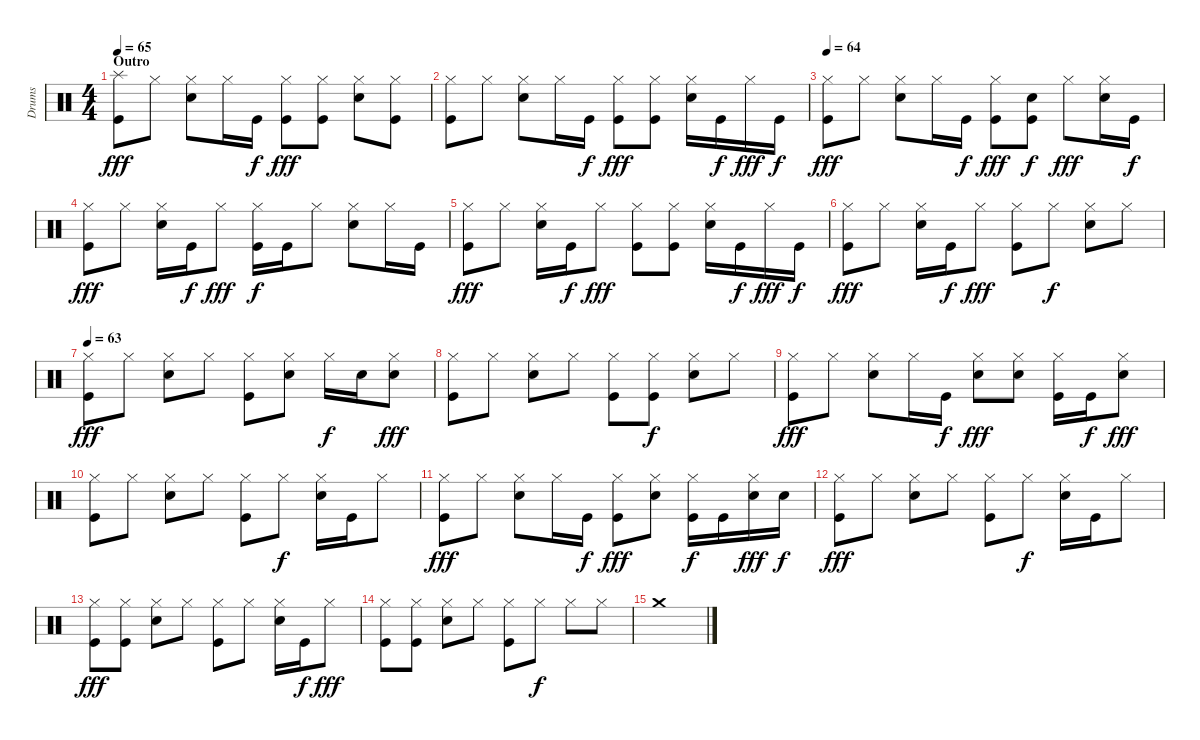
\track ("Drums" "Drums") {instrument percussion}
\staff {score}
\articulation defaults
\ts (4 4)
\section ("" "Outro")
\tempo 65
\clef neutral
\ks c
("Splash (hit)" "Kick (hit)").8{dy fff} "Hi-Hat (closed)".8 ("Hi-Hat (closed)" "Electric Snare (hit)").8 "Hi-Hat (closed)".16 "Kick (hit)".16{dy f} ("Hi-Hat (closed)" "Kick (hit)").8{dy fff} ("Hi-Hat (closed)" "Kick (hit)").8 ("Hi-Hat (closed)" "Electric Snare (hit)").8 ("Hi-Hat (closed)" "Kick (hit)").8 |
("Hi-Hat (closed)" "Kick (hit)").8 "Hi-Hat (closed)".8 ("Hi-Hat (closed)" "Electric Snare (hit)").8 "Hi-Hat (closed)".16 "Kick (hit)".16{dy f} ("Hi-Hat (closed)" "Kick (hit)").8{dy fff} ("Hi-Hat (closed)" "Kick (hit)").8 ("Hi-Hat (closed)" "Electric Snare (hit)").16 "Kick (hit)".16{dy f} "Hi-Hat (closed)".16{dy fff} "Kick (hit)".16{dy f} |
\tempo 64
("Hi-Hat (closed)" "Kick (hit)").8{dy fff} "Hi-Hat (closed)".8 ("Hi-Hat (closed)" "Electric Snare (hit)").8 "Hi-Hat (closed)".16 "Kick (hit)".16{dy f} ("Hi-Hat (closed)" "Kick (hit)").8{dy fff} ("Electric Snare (hit)" "Kick (hit)").8{dy f} "Hi-Hat (closed)".8{dy fff} ("Hi-Hat (closed)" "Electric Snare (hit)").16 "Kick (hit)".16{dy f} |
("Hi-Hat (closed)" "Kick (hit)").8{dy fff} "Hi-Hat (closed)".8 ("Hi-Hat (closed)" "Electric Snare (hit)").16 "Kick (hit)".16{dy f} "Hi-Hat (closed)".8{dy fff} ("Hi-Hat (closed)" "Kick (hit)").16{dy f} "Kick (hit)".16 "Hi-Hat (closed)".8 ("Hi-Hat (closed)" "Electric Snare (hit)").8 "Hi-Hat (closed)".16 "Kick (hit)".16 |
("Hi-Hat (closed)" "Kick (hit)").8{dy fff} "Hi-Hat (closed)".8 ("Hi-Hat (closed)" "Electric Snare (hit)").16 "Kick (hit)".16{dy f} "Hi-Hat (closed)".8{dy fff} ("Hi-Hat (closed)" "Kick (hit)").8 ("Hi-Hat (closed)" "Kick (hit)").8 ("Hi-Hat (closed)" "Electric Snare (hit)").16 "Kick (hit)".16{dy f} "Hi-Hat (closed)".16{dy fff} "Kick (hit)".16{dy f} |
("Hi-Hat (closed)" "Kick (hit)").8{dy fff} "Hi-Hat (closed)".8 ("Hi-Hat (closed)" "Electric Snare (hit)").16 "Kick (hit)".16{dy f} "Hi-Hat (closed)".8{dy fff} ("Hi-Hat (closed)" "Kick (hit)").8 "Hi-Hat (closed)".8{dy f} ("Hi-Hat (closed)" "Electric Snare (hit)").8 "Hi-Hat (closed)".8 |
\tempo 63
("Hi-Hat (closed)" "Kick (hit)").8{dy fff} "Hi-Hat (closed)".8 ("Hi-Hat (closed)" "Electric Snare (hit)").8 "Hi-Hat (closed)".8 ("Hi-Hat (closed)" "Kick (hit)").8 ("Hi-Hat (closed)" "Electric Snare (hit)").8 "Hi-Hat (closed)".16{dy f} "Electric Snare (hit)".16 ("Hi-Hat (closed)" "Electric Snare (hit)").8{dy fff} |
("Hi-Hat (closed)" "Kick (hit)").8 "Hi-Hat (closed)".8 ("Hi-Hat (closed)" "Electric Snare (hit)").8 "Hi-Hat (closed)".8 ("Hi-Hat (closed)" "Kick (hit)").8 ("Hi-Hat (closed)" "Kick (hit)").8{dy f} ("Hi-Hat (closed)" "Electric Snare (hit)").8 "Hi-Hat (closed)".8 |
("Hi-Hat (closed)" "Kick (hit)").8{dy fff} "Hi-Hat (closed)".8 ("Hi-Hat (closed)" "Electric Snare (hit)").8 "Hi-Hat (closed)".16 "Kick (hit)".16{dy f} ("Hi-Hat (closed)" "Electric Snare (hit)").8{dy fff} ("Hi-Hat (closed)" "Electric Snare (hit)").8 ("Hi-Hat (closed)" "Kick (hit)").16 "Kick (hit)".16{dy f} ("Hi-Hat (closed)" "Electric Snare (hit)").8{dy fff} |
("Hi-Hat (closed)" "Kick (hit)").8 "Hi-Hat (closed)".8 ("Hi-Hat (closed)" "Electric Snare (hit)").8 "Hi-Hat (closed)".8 ("Hi-Hat (closed)" "Kick (hit)").8 "Hi-Hat (closed)".8{dy f} ("Hi-Hat (closed)" "Electric Snare (hit)").16 "Kick (hit)".16 "Hi-Hat (closed)".8 |
("Hi-Hat (closed)" "Kick (hit)").8{dy fff} "Hi-Hat (closed)".8 ("Hi-Hat (closed)" "Electric Snare (hit)").8 "Hi-Hat (closed)".16 "Kick (hit)".16{dy f} ("Hi-Hat (closed)" "Kick (hit)").8{dy fff} ("Hi-Hat (closed)" "Electric Snare (hit)").8 ("Hi-Hat (closed)" "Kick (hit)").16{dy f} "Kick (hit)".16 ("Hi-Hat (closed)" "Electric Snare (hit)").16{dy fff} "Electric Snare (hit)".16{dy f} |
("Hi-Hat (closed)" "Kick (hit)").8{dy fff} "Hi-Hat (closed)".8 ("Hi-Hat (closed)" "Electric Snare (hit)").8 "Hi-Hat (closed)".8 ("Hi-Hat (closed)" "Kick (hit)").8 "Hi-Hat (closed)".8{dy f} ("Hi-Hat (closed)" "Electric Snare (hit)").16 "Kick (hit)".16 "Hi-Hat (closed)".8 |
("Hi-Hat (closed)" "Kick (hit)").8{dy fff} ("Hi-Hat (closed)" "Kick (hit)").8 ("Hi-Hat (closed)" "Electric Snare (hit)").8 "Hi-Hat (closed)".8 ("Hi-Hat (closed)" "Kick (hit)").8 "Hi-Hat (closed)".8 ("Hi-Hat (closed)" "Electric Snare (hit)").16 "Kick (hit)".16{dy f} "Hi-Hat (closed)".8{dy fff} |
("Hi-Hat (closed)" "Kick (hit)").8 ("Hi-Hat (closed)" "Kick (hit)").8 ("Hi-Hat (closed)" "Electric Snare (hit)").8 "Hi-Hat (closed)".8 ("Hi-Hat (closed)" "Kick (hit)").8 "Hi-Hat (closed)".8{dy f} "Hi-Hat (closed)".8 "Hi-Hat (closed)".8 |
"Crash medium (hit)".1
